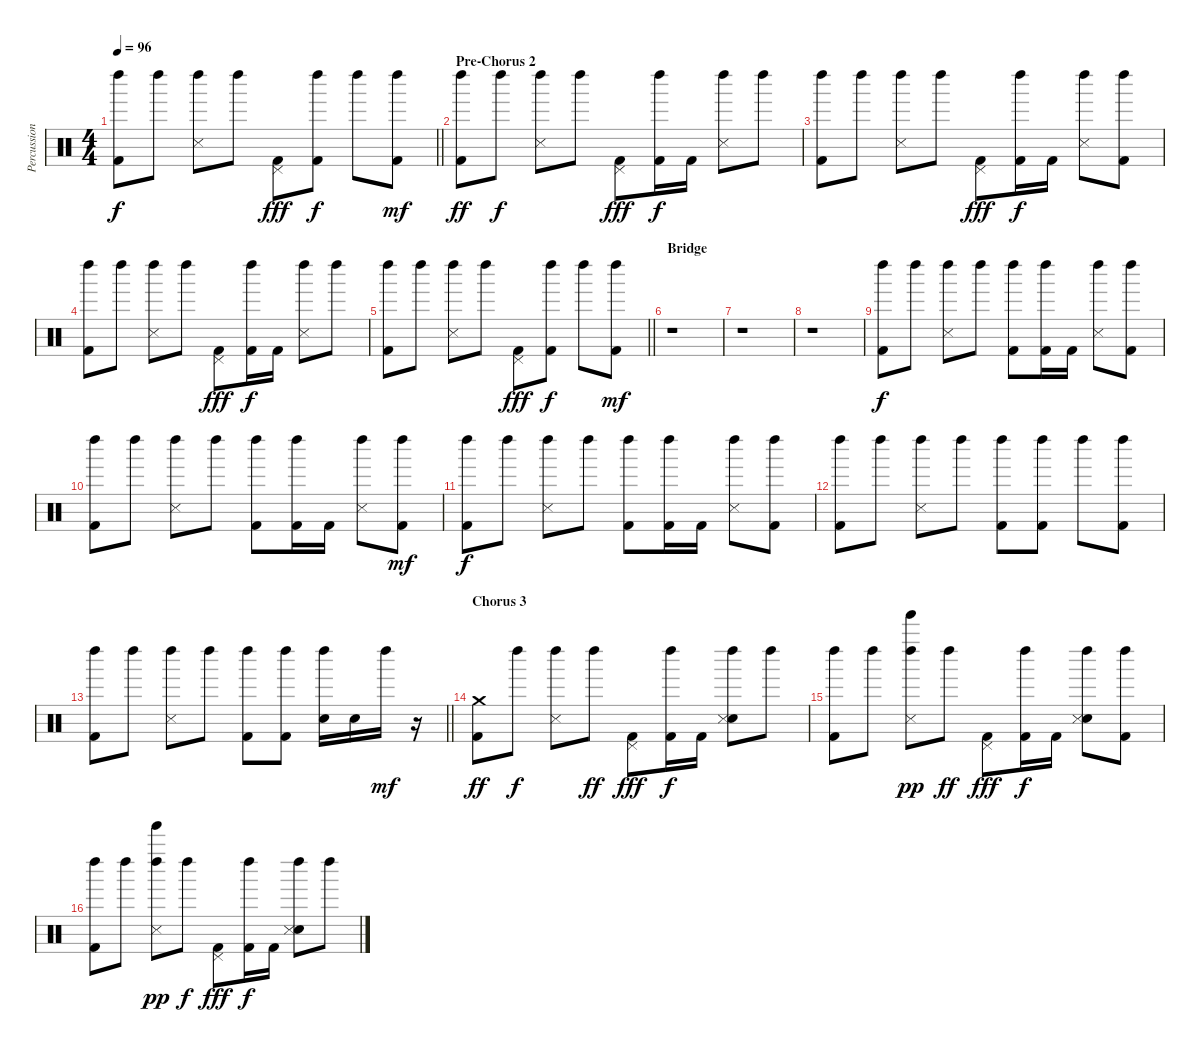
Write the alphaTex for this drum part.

\track ("Percussion" "Percussion") {instrument percussion}
\staff {score}
\articulation defaults
\ts (4 4)
\tempo 96
\clef neutral
\barLineRight lightlight
\ks c
("Left Maraca (hit)" "Kick (hit) 2").8{dy f} "Left Maraca (hit)".8 ("Left Maraca (hit)" "Snare (side stick) 3").8 "Left Maraca (hit)".8 ("Pedal Hi-Hat (hit)" "Kick (hit) 2").8{dy fff} ("Left Maraca (hit)" "Kick (hit) 2").8{dy f} "Left Maraca (hit)".8 ("Left Maraca (hit)" "Kick (hit) 2").8{dy mf} |
\section ("" "Pre-Chorus 2")
("Left Maraca (hit)" "Kick (hit) 2").8{dy ff} "Left Maraca (hit)".8{dy f} ("Left Maraca (hit)" "Snare (side stick) 3").8 "Left Maraca (hit)".8 ("Pedal Hi-Hat (hit)" "Kick (hit) 2").8{dy fff} ("Left Maraca (hit)" "Kick (hit) 2").16{dy f} "Kick (hit) 2".16 ("Left Maraca (hit)" "Snare (side stick) 3").8 "Left Maraca (hit)".8 |
("Left Maraca (hit)" "Kick (hit) 2").8 "Left Maraca (hit)".8 ("Left Maraca (hit)" "Snare (side stick) 3").8 "Left Maraca (hit)".8 ("Pedal Hi-Hat (hit)" "Kick (hit) 2").8{dy fff} ("Left Maraca (hit)" "Kick (hit) 2").16{dy f} "Kick (hit) 2".16 ("Left Maraca (hit)" "Snare (side stick) 3").8 ("Left Maraca (hit)" "Kick (hit) 2").8 |
("Left Maraca (hit)" "Kick (hit) 2").8 "Left Maraca (hit)".8 ("Left Maraca (hit)" "Snare (side stick) 3").8 "Left Maraca (hit)".8 ("Pedal Hi-Hat (hit)" "Kick (hit) 2").8{dy fff} ("Left Maraca (hit)" "Kick (hit) 2").16{dy f} "Kick (hit) 2".16 ("Left Maraca (hit)" "Snare (side stick) 3").8 "Left Maraca (hit)".8 |
\barLineRight lightlight
("Left Maraca (hit)" "Kick (hit) 2").8 "Left Maraca (hit)".8 ("Left Maraca (hit)" "Snare (side stick) 3").8 "Left Maraca (hit)".8 ("Pedal Hi-Hat (hit)" "Kick (hit) 2").8{dy fff} ("Left Maraca (hit)" "Kick (hit) 2").8{dy f} "Left Maraca (hit)".8 ("Left Maraca (hit)" "Kick (hit) 2").8{dy mf} |
\section ("" "Bridge")
r.1 |
r.1 |
r.1 |
("Left Maraca (hit)" "Kick (hit) 2").8{dy f volume 5} "Left Maraca (hit)".8 ("Left Maraca (hit)" "Snare (side stick) 3").8 "Left Maraca (hit)".8 ("Left Maraca (hit)" "Kick (hit) 2").8 ("Left Maraca (hit)" "Kick (hit) 2").16 "Kick (hit) 2".16 ("Left Maraca (hit)" "Snare (side stick) 3").8 ("Left Maraca (hit)" "Kick (hit) 2").8 |
("Left Maraca (hit)" "Kick (hit) 2").8 "Left Maraca (hit)".8 ("Left Maraca (hit)" "Snare (side stick) 3").8 "Left Maraca (hit)".8 ("Left Maraca (hit)" "Kick (hit) 2").8 ("Left Maraca (hit)" "Kick (hit) 2").16 "Kick (hit) 2".16 ("Left Maraca (hit)" "Snare (side stick) 3").8 ("Left Maraca (hit)" "Kick (hit) 2").8{dy mf} |
("Left Maraca (hit)" "Kick (hit) 2").8{dy f} "Left Maraca (hit)".8 ("Left Maraca (hit)" "Snare (side stick) 3").8 "Left Maraca (hit)".8 ("Left Maraca (hit)" "Kick (hit) 2").8 ("Left Maraca (hit)" "Kick (hit) 2").16 "Kick (hit) 2".16 ("Left Maraca (hit)" "Snare (side stick) 3").8 ("Left Maraca (hit)" "Kick (hit) 2").8 |
("Left Maraca (hit)" "Kick (hit) 2").8 "Left Maraca (hit)".8 ("Left Maraca (hit)" "Snare (side stick) 3").8 "Left Maraca (hit)".8 ("Left Maraca (hit)" "Kick (hit) 2").8 ("Left Maraca (hit)" "Kick (hit) 2").8 "Left Maraca (hit)".8 ("Left Maraca (hit)" "Kick (hit) 2").8 |
\barLineRight lightlight
("Left Maraca (hit)" "Kick (hit) 2").8 "Left Maraca (hit)".8 ("Left Maraca (hit)" "Snare (side stick) 3").8 "Left Maraca (hit)".8 ("Left Maraca (hit)" "Kick (hit) 2").8 ("Left Maraca (hit)" "Kick (hit) 2").8 ("Left Maraca (hit)" "Snare (hit) 2").16{volume 10} "Electric Snare (hit)".16 "Left Maraca (hit)".16{dy mf} r.16 |
\section ("" "Chorus 3")
("Crash medium (hit)" "Kick (hit) 2").8{dy ff} "Left Maraca (hit)".8{dy f} ("Left Maraca (hit)" "Snare (side stick) 3").8 "Left Maraca (hit)".8{dy ff} ("Pedal Hi-Hat (hit)" "Kick (hit) 2").8{dy fff} ("Left Maraca (hit)" "Kick (hit) 2").16{dy f} "Kick (hit) 2".16 ("Left Maraca (hit)" "Hand Clap (hit)" "Snare (side stick) 3").8 "Left Maraca (hit)".8 |
("Left Maraca (hit)" "Kick (hit) 2").8 "Left Maraca (hit)".8 ("Left Maraca (hit)" "Tinkle Bell (hit)" "Snare (side stick) 3").8{dy pp} "Left Maraca (hit)".8{dy ff} ("Pedal Hi-Hat (hit)" "Kick (hit) 2").8{dy fff} ("Left Maraca (hit)" "Kick (hit) 2").16{dy f} "Kick (hit) 2".16 ("Left Maraca (hit)" "Hand Clap (hit)" "Snare (side stick) 3").8 ("Left Maraca (hit)" "Kick (hit) 2").8 |
("Left Maraca (hit)" "Kick (hit) 2").8 "Left Maraca (hit)".8 ("Left Maraca (hit)" "Tinkle Bell (hit)" "Snare (side stick) 3").8{dy pp} "Left Maraca (hit)".8{dy f} ("Pedal Hi-Hat (hit)" "Kick (hit) 2").8{dy fff} ("Left Maraca (hit)" "Kick (hit) 2").16{dy f} "Kick (hit) 2".16 ("Left Maraca (hit)" "Hand Clap (hit)" "Snare (side stick) 3").8 "Left Maraca (hit)".8
